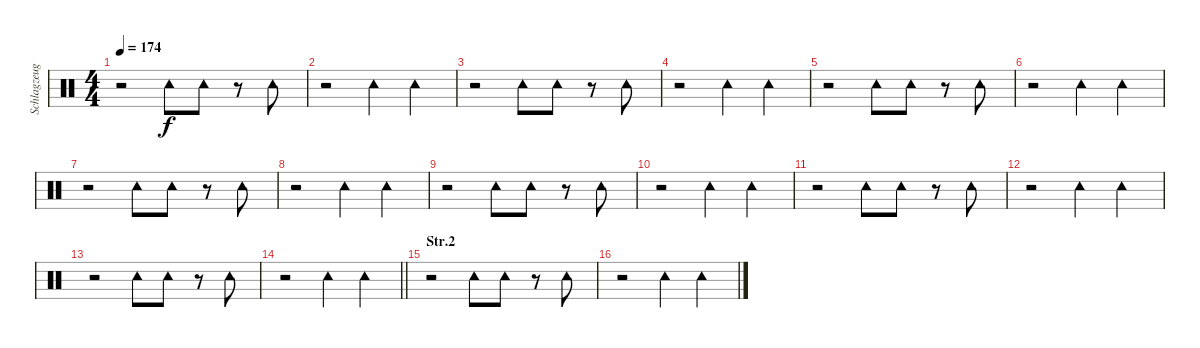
\track ("Schlagzeug" "Schlagzeug") {instrument percussion}
\staff {score}
\articulation defaults
\ts (4 4)
\tempo 174
\clef neutral
\ks c
r.2{dy f} "Tambourine (hit)".8 "Tambourine (hit)".8 r.8 "Tambourine (hit)".8 |
r.2 "Tambourine (hit)".4 "Tambourine (hit)".4 |
r.2 "Tambourine (hit)".8 "Tambourine (hit)".8 r.8 "Tambourine (hit)".8 |
r.2 "Tambourine (hit)".4 "Tambourine (hit)".4 |
r.2 "Tambourine (hit)".8 "Tambourine (hit)".8 r.8 "Tambourine (hit)".8 |
r.2 "Tambourine (hit)".4 "Tambourine (hit)".4 |
r.2 "Tambourine (hit)".8 "Tambourine (hit)".8 r.8 "Tambourine (hit)".8 |
r.2 "Tambourine (hit)".4 "Tambourine (hit)".4 |
r.2 "Tambourine (hit)".8 "Tambourine (hit)".8 r.8 "Tambourine (hit)".8 |
r.2 "Tambourine (hit)".4 "Tambourine (hit)".4 |
r.2 "Tambourine (hit)".8 "Tambourine (hit)".8 r.8 "Tambourine (hit)".8 |
r.2 "Tambourine (hit)".4 "Tambourine (hit)".4 |
r.2 "Tambourine (hit)".8 "Tambourine (hit)".8 r.8 "Tambourine (hit)".8 |
\barLineRight lightlight
r.2 "Tambourine (hit)".4 "Tambourine (hit)".4 |
\section ("" "Str.2")
r.2 "Tambourine (hit)".8 "Tambourine (hit)".8 r.8 "Tambourine (hit)".8 |
r.2 "Tambourine (hit)".4 "Tambourine (hit)".4
